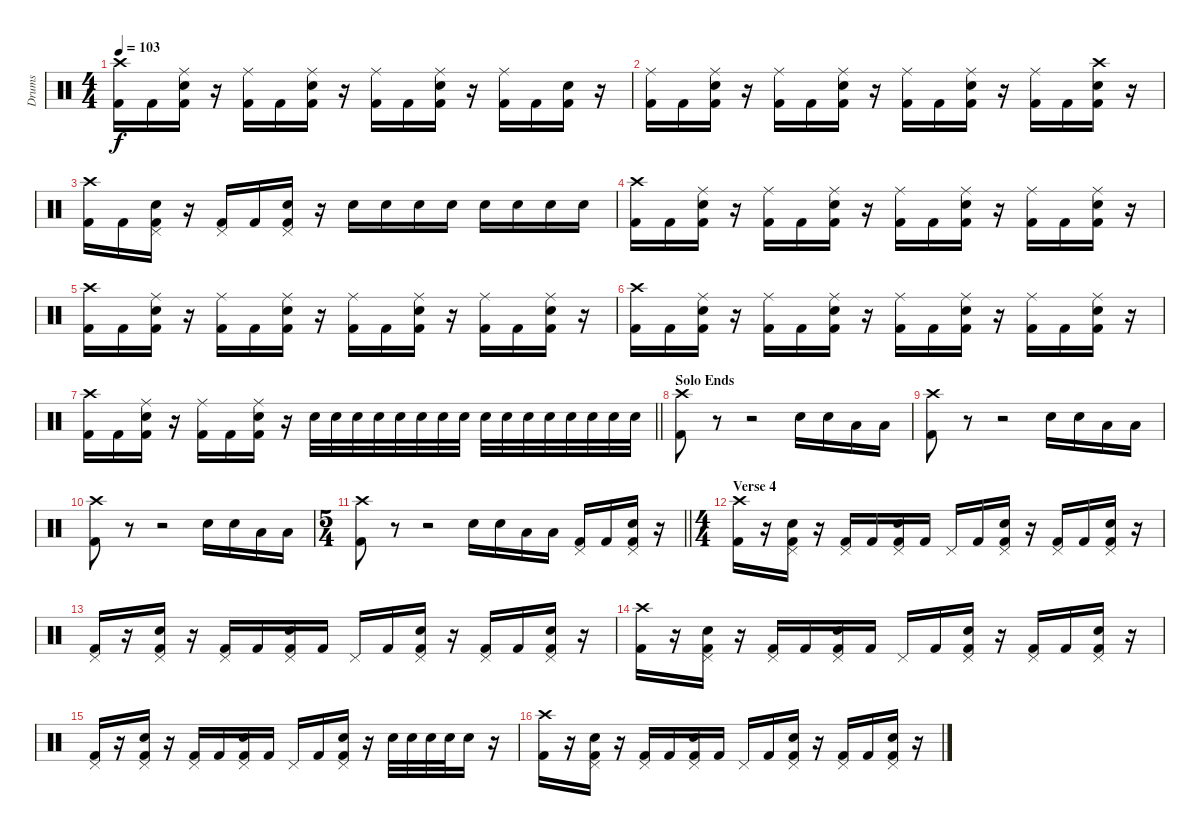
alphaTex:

\track ("Drums" "Drums") {instrument percussion}
\staff {score}
\articulation defaults
\ts (4 4)
\tempo 103
\clef neutral
\ks c
("Crash high (hit)" "Kick (hit) 2").16{dy f} "Kick (hit) 2".16 ("Ride (middle)" "Snare (hit) 2" "Kick (hit) 2").16 r.16 ("Ride (middle)" "Kick (hit) 2").16 "Kick (hit) 2".16 ("Ride (middle)" "Snare (hit) 2" "Kick (hit) 2").16 r.16 ("Ride (middle)" "Kick (hit) 2").16 "Kick (hit) 2".16 ("Ride (middle)" "Snare (hit) 2" "Kick (hit) 2").16 r.16 ("Ride (middle)" "Kick (hit) 2").16 "Kick (hit) 2".16 ("Snare (hit) 2" "Kick (hit) 2").16 r.16 |
("Ride (middle)" "Kick (hit) 2").16 "Kick (hit) 2".16 ("Ride (middle)" "Snare (hit) 2" "Kick (hit) 2").16 r.16 ("Ride (middle)" "Kick (hit) 2").16 "Kick (hit) 2".16 ("Ride (middle)" "Snare (hit) 2" "Kick (hit) 2").16 r.16 ("Ride (middle)" "Kick (hit) 2").16 "Kick (hit) 2".16 ("Ride (middle)" "Snare (hit) 2" "Kick (hit) 2").16 r.16 ("Ride (middle)" "Kick (hit) 2").16 "Kick (hit) 2".16 ("Crash high (hit)" "Snare (hit) 2" "Kick (hit) 2").16 r.16 |
("Crash high (hit)" "Kick (hit) 2").16 "Kick (hit) 2".16 ("Pedal Hi-Hat (hit)" "Snare (hit) 2" "Kick (hit) 2").16 r.16 ("Pedal Hi-Hat (hit)" "Kick (hit) 2").16 "Kick (hit) 2".16 ("Pedal Hi-Hat (hit)" "Snare (hit) 2" "Kick (hit) 2").16 r.16 "Snare (hit) 2".16 "Snare (hit) 2".16 "Snare (hit) 2".16 "Snare (hit) 2".16 "Snare (hit) 2".16 "Snare (hit) 2".16 "Snare (hit) 2".16 "Snare (hit) 2".16 |
("Crash high (hit)" "Kick (hit) 2").16 "Kick (hit) 2".16 ("Ride (middle)" "Snare (hit) 2" "Kick (hit) 2").16 r.16 ("Ride (middle)" "Kick (hit) 2").16 "Kick (hit) 2".16 ("Ride (middle)" "Snare (hit) 2" "Kick (hit) 2").16 r.16 ("Ride (middle)" "Kick (hit) 2").16 "Kick (hit) 2".16 ("Ride (middle)" "Snare (hit) 2" "Kick (hit) 2").16 r.16 ("Ride (middle)" "Kick (hit) 2").16 "Kick (hit) 2".16 ("Ride (middle)" "Snare (hit) 2" "Kick (hit) 2").16 r.16 |
("Crash high (hit)" "Kick (hit) 2").16 "Kick (hit) 2".16 ("Ride (middle)" "Snare (hit) 2" "Kick (hit) 2").16 r.16 ("Ride (middle)" "Kick (hit) 2").16 "Kick (hit) 2".16 ("Ride (middle)" "Snare (hit) 2" "Kick (hit) 2").16 r.16 ("Ride (middle)" "Kick (hit) 2").16 "Kick (hit) 2".16 ("Ride (middle)" "Snare (hit) 2" "Kick (hit) 2").16 r.16 ("Ride (middle)" "Kick (hit) 2").16 "Kick (hit) 2".16 ("Ride (middle)" "Snare (hit) 2" "Kick (hit) 2").16 r.16 |
("Crash high (hit)" "Kick (hit) 2").16 "Kick (hit) 2".16 ("Ride (middle)" "Snare (hit) 2" "Kick (hit) 2").16 r.16 ("Ride (middle)" "Kick (hit) 2").16 "Kick (hit) 2".16 ("Ride (middle)" "Snare (hit) 2" "Kick (hit) 2").16 r.16 ("Ride (middle)" "Kick (hit) 2").16 "Kick (hit) 2".16 ("Ride (middle)" "Snare (hit) 2" "Kick (hit) 2").16 r.16 ("Ride (middle)" "Kick (hit) 2").16 "Kick (hit) 2".16 ("Ride (middle)" "Snare (hit) 2" "Kick (hit) 2").16 r.16 |
\barLineRight lightlight
("Crash high (hit)" "Kick (hit) 2").16 "Kick (hit) 2".16 ("Ride (middle)" "Snare (hit) 2" "Kick (hit) 2").16 r.16 ("Ride (middle)" "Kick (hit) 2").16 "Kick (hit) 2".16 ("Ride (middle)" "Snare (hit) 2" "Kick (hit) 2").16 r.16 "Snare (hit) 2".32 "Snare (hit) 2".32 "Snare (hit) 2".32 "Snare (hit) 2".32 "Snare (hit) 2".32 "Snare (hit) 2".32 "Snare (hit) 2".32 "Snare (hit) 2".32 "Snare (hit) 2".32 "Snare (hit) 2".32 "Snare (hit) 2".32 "Snare (hit) 2".32 "Snare (hit) 2".32 "Snare (hit) 2".32 "Snare (hit) 2".32 "Snare (hit) 2".32 |
\section ("" "Solo Ends")
("Crash high (hit)" "Kick (hit) 2").8 r.8 r.2 "Snare (hit) 2".16 "Snare (hit) 2".16 "Low Tom (hit)".16 "Low Tom (hit)".16 |
("Crash high (hit)" "Kick (hit) 2").8 r.8 r.2 "Snare (hit) 2".16 "Snare (hit) 2".16 "Low Tom (hit)".16 "Low Tom (hit)".16 |
("Crash high (hit)" "Kick (hit) 2").8 r.8 r.2 "Snare (hit) 2".16 "Snare (hit) 2".16 "Low Tom (hit)".16 "Low Tom (hit)".16 |
\ts (5 4)
\barLineRight lightlight
("Crash high (hit)" "Kick (hit) 2").8 r.8 r.2 "Snare (hit) 2".16 "Snare (hit) 2".16 "Low Tom (hit)".16 "Low Tom (hit)".16 ("Pedal Hi-Hat (hit)" "Kick (hit) 2").16 "Kick (hit) 2".16 ("Pedal Hi-Hat (hit)" "Snare (hit) 2" "Kick (hit) 2").16 r.16 |
\ts (4 4)
\section ("" "Verse 4")
("Crash high (hit)" "Kick (hit) 2").16 r.16 ("Pedal Hi-Hat (hit)" "Snare (hit) 2" "Kick (hit) 2").16 r.16 ("Pedal Hi-Hat (hit)" "Kick (hit) 2").16 "Kick (hit) 2".16 ("Pedal Hi-Hat (hit)" "Snare (hit) 2" "Kick (hit) 2").16 "Kick (hit) 2".16 "Pedal Hi-Hat (hit)".16 "Kick (hit) 2".16 ("Pedal Hi-Hat (hit)" "Snare (hit) 2" "Kick (hit) 2").16 r.16 ("Pedal Hi-Hat (hit)" "Kick (hit) 2").16 "Kick (hit) 2".16 ("Pedal Hi-Hat (hit)" "Snare (hit) 2" "Kick (hit) 2").16 r.16 |
("Pedal Hi-Hat (hit)" "Kick (hit) 2").16 r.16 ("Pedal Hi-Hat (hit)" "Snare (hit) 2" "Kick (hit) 2").16 r.16 ("Pedal Hi-Hat (hit)" "Kick (hit) 2").16 "Kick (hit) 2".16 ("Pedal Hi-Hat (hit)" "Snare (hit) 2" "Kick (hit) 2").16 "Kick (hit) 2".16 "Pedal Hi-Hat (hit)".16 "Kick (hit) 2".16 ("Pedal Hi-Hat (hit)" "Snare (hit) 2" "Kick (hit) 2").16 r.16 ("Pedal Hi-Hat (hit)" "Kick (hit) 2").16 "Kick (hit) 2".16 ("Pedal Hi-Hat (hit)" "Snare (hit) 2" "Kick (hit) 2").16 r.16 |
("Crash high (hit)" "Kick (hit) 2").16 r.16 ("Pedal Hi-Hat (hit)" "Snare (hit) 2" "Kick (hit) 2").16 r.16 ("Pedal Hi-Hat (hit)" "Kick (hit) 2").16 "Kick (hit) 2".16 ("Pedal Hi-Hat (hit)" "Snare (hit) 2" "Kick (hit) 2").16 "Kick (hit) 2".16 "Pedal Hi-Hat (hit)".16 "Kick (hit) 2".16 ("Pedal Hi-Hat (hit)" "Snare (hit) 2" "Kick (hit) 2").16 r.16 ("Pedal Hi-Hat (hit)" "Kick (hit) 2").16 "Kick (hit) 2".16 ("Pedal Hi-Hat (hit)" "Snare (hit) 2" "Kick (hit) 2").16 r.16 |
("Pedal Hi-Hat (hit)" "Kick (hit) 2").16 r.16 ("Pedal Hi-Hat (hit)" "Snare (hit) 2" "Kick (hit) 2").16 r.16 ("Pedal Hi-Hat (hit)" "Kick (hit) 2").16 "Kick (hit) 2".16 ("Pedal Hi-Hat (hit)" "Snare (hit) 2" "Kick (hit) 2").16 "Kick (hit) 2".16 "Pedal Hi-Hat (hit)".16 "Kick (hit) 2".16 ("Pedal Hi-Hat (hit)" "Snare (hit) 2" "Kick (hit) 2").16 r.16 "Snare (hit) 2".32 "Snare (hit) 2".32 "Snare (hit) 2".32 "Snare (hit) 2".32 "Snare (hit) 2".16 r.16 |
("Crash high (hit)" "Kick (hit) 2").16 r.16 ("Pedal Hi-Hat (hit)" "Snare (hit) 2" "Kick (hit) 2").16 r.16 ("Pedal Hi-Hat (hit)" "Kick (hit) 2").16 "Kick (hit) 2".16 ("Pedal Hi-Hat (hit)" "Snare (hit) 2" "Kick (hit) 2").16 "Kick (hit) 2".16 "Pedal Hi-Hat (hit)".16 "Kick (hit) 2".16 ("Pedal Hi-Hat (hit)" "Snare (hit) 2" "Kick (hit) 2").16 r.16 ("Pedal Hi-Hat (hit)" "Kick (hit) 2").16 "Kick (hit) 2".16 ("Pedal Hi-Hat (hit)" "Snare (hit) 2" "Kick (hit) 2").16 r.16
